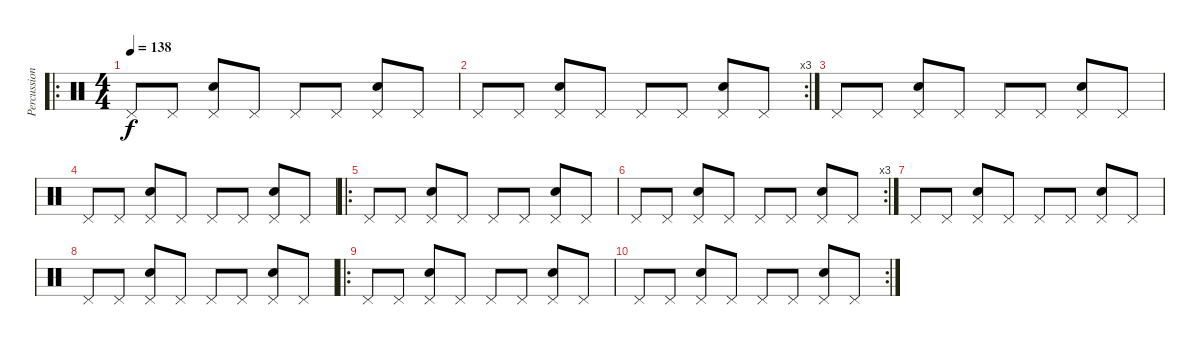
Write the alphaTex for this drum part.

\track ("Percussions" "Percussion") {instrument percussion}
\staff {score}
\articulation defaults
\ro
\ts (4 4)
\tempo 138
\clef neutral
\ks c "Pedal Hi-Hat (hit)".8{dy f} "Pedal Hi-Hat (hit)".8
("Pedal Hi-Hat (hit)" "Snare (hit) 2").8 "Pedal Hi-Hat (hit)".8 "Pedal Hi-Hat (hit)".8 "Pedal Hi-Hat (hit)".8 ("Pedal Hi-Hat (hit)" "Snare (hit) 2").8 "Pedal Hi-Hat (hit)".8 |
\rc 3 "Pedal Hi-Hat (hit)".8 "Pedal Hi-Hat (hit)".8
("Pedal Hi-Hat (hit)" "Snare (hit) 2").8 "Pedal Hi-Hat (hit)".8 "Pedal Hi-Hat (hit)".8 "Pedal Hi-Hat (hit)".8 ("Pedal Hi-Hat (hit)" "Snare (hit) 2").8 "Pedal Hi-Hat (hit)".8 |
"Pedal Hi-Hat (hit)".8 "Pedal Hi-Hat (hit)".8 ("Pedal Hi-Hat (hit)" "Snare (hit) 2").8 "Pedal Hi-Hat (hit)".8 "Pedal Hi-Hat (hit)".8 "Pedal Hi-Hat (hit)".8 ("Pedal Hi-Hat (hit)" "Snare (hit) 2").8 "Pedal Hi-Hat (hit)".8 |
"Pedal Hi-Hat (hit)".8 "Pedal Hi-Hat (hit)".8 ("Pedal Hi-Hat (hit)" "Snare (hit) 2").8 "Pedal Hi-Hat (hit)".8 "Pedal Hi-Hat (hit)".8 "Pedal Hi-Hat (hit)".8 ("Pedal Hi-Hat (hit)" "Snare (hit) 2").8 "Pedal Hi-Hat (hit)".8 |
\ro "Pedal Hi-Hat (hit)".8 "Pedal Hi-Hat (hit)".8
("Pedal Hi-Hat (hit)" "Snare (hit) 2").8 "Pedal Hi-Hat (hit)".8 "Pedal Hi-Hat (hit)".8 "Pedal Hi-Hat (hit)".8 ("Pedal Hi-Hat (hit)" "Snare (hit) 2").8 "Pedal Hi-Hat (hit)".8 |
\rc 3 "Pedal Hi-Hat (hit)".8 "Pedal Hi-Hat (hit)".8
("Pedal Hi-Hat (hit)" "Snare (hit) 2").8 "Pedal Hi-Hat (hit)".8 "Pedal Hi-Hat (hit)".8 "Pedal Hi-Hat (hit)".8 ("Pedal Hi-Hat (hit)" "Snare (hit) 2").8 "Pedal Hi-Hat (hit)".8 |
"Pedal Hi-Hat (hit)".8 "Pedal Hi-Hat (hit)".8 ("Pedal Hi-Hat (hit)" "Snare (hit) 2").8 "Pedal Hi-Hat (hit)".8 "Pedal Hi-Hat (hit)".8 "Pedal Hi-Hat (hit)".8 ("Pedal Hi-Hat (hit)" "Snare (hit) 2").8 "Pedal Hi-Hat (hit)".8 |
"Pedal Hi-Hat (hit)".8 "Pedal Hi-Hat (hit)".8 ("Pedal Hi-Hat (hit)" "Snare (hit) 2").8 "Pedal Hi-Hat (hit)".8 "Pedal Hi-Hat (hit)".8 "Pedal Hi-Hat (hit)".8 ("Pedal Hi-Hat (hit)" "Snare (hit) 2").8 "Pedal Hi-Hat (hit)".8 |
\ro "Pedal Hi-Hat (hit)".8 "Pedal Hi-Hat (hit)".8
("Pedal Hi-Hat (hit)" "Snare (hit) 2").8 "Pedal Hi-Hat (hit)".8 "Pedal Hi-Hat (hit)".8 "Pedal Hi-Hat (hit)".8 ("Pedal Hi-Hat (hit)" "Snare (hit) 2").8 "Pedal Hi-Hat (hit)".8 |
\rc 2 "Pedal Hi-Hat (hit)".8 "Pedal Hi-Hat (hit)".8
("Pedal Hi-Hat (hit)" "Snare (hit) 2").8 "Pedal Hi-Hat (hit)".8 "Pedal Hi-Hat (hit)".8 "Pedal Hi-Hat (hit)".8 ("Pedal Hi-Hat (hit)" "Snare (hit) 2").8 "Pedal Hi-Hat (hit)".8
